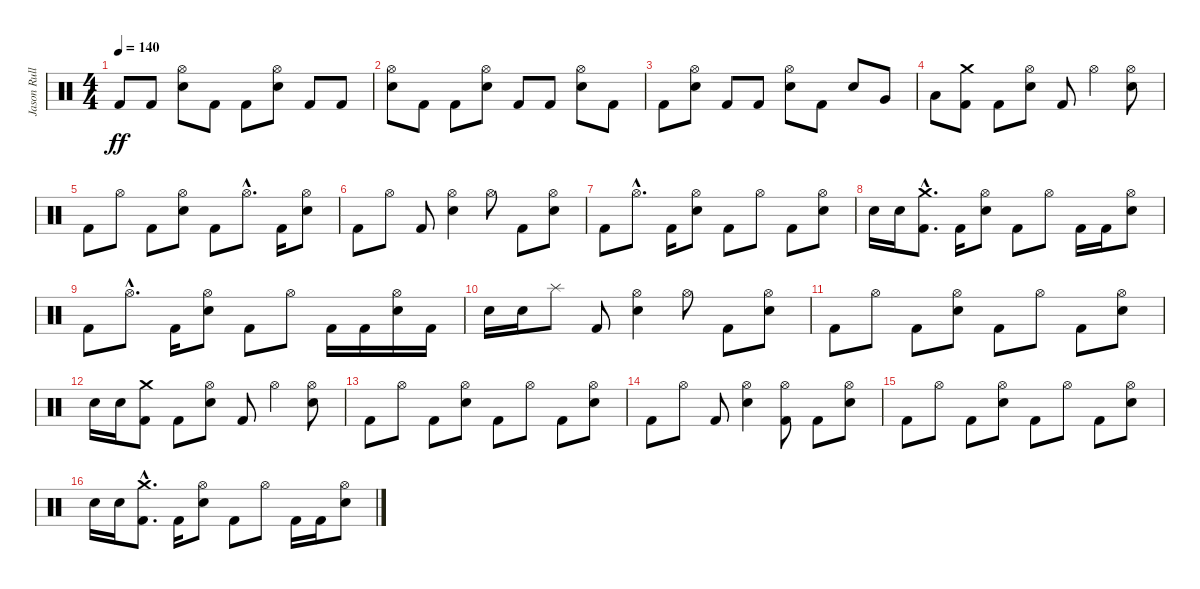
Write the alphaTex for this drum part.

\track ("Jason Rullo" "Jason Rull") {instrument percussion}
\staff {score}
\articulation defaults
\ts (4 4)
\tempo 140
\clef neutral
\ks c "Kick (hit) 2".8{dy ff volume 5} "Kick (hit) 2".8
("Electric Snare (hit)" "Hi-Hat (open)").8 "Kick (hit) 2".8{volume 5} "Kick (hit) 2".8 ("Electric Snare (hit)" "Hi-Hat (open)").8 "Kick (hit) 2".8{volume 6} "Kick (hit) 2".8 |
("Electric Snare (hit)" "Hi-Hat (open)").8 "Kick (hit) 2".8{volume 7} "Kick (hit) 2".8 ("Electric Snare (hit)" "Hi-Hat (open)").8 "Kick (hit) 2".8{volume 8} "Kick (hit) 2".8 ("Electric Snare (hit)" "Hi-Hat (open)").8 "Kick (hit) 2".8{volume 9} |
"Kick (hit) 2".8 ("Electric Snare (hit)" "Hi-Hat (open)").8 "Kick (hit) 2".8{volume 10} "Kick (hit) 2".8 ("Electric Snare (hit)" "Hi-Hat (open)").8 "Kick (hit) 2".8 "Electric Snare (hit)".8{volume 11} "Very Low Tom (hit)".8 |
"Low Floor Tom (hit)".8 ("Crash medium (hit)" "Kick (hit) 2").8 "Kick (hit) 2".8 ("Electric Snare (hit)" "Hi-Hat (open)").8 "Kick (hit) 2".8 "Hi-Hat (open)".4 ("Electric Snare (hit)" "Hi-Hat (open)").8 |
"Kick (hit) 2".8 "Hi-Hat (open)".8 "Kick (hit) 2".8 ("Electric Snare (hit)" "Hi-Hat (open)").8 "Kick (hit) 2".8 "Hi-Hat (open)"{hac}.8{d} "Kick (hit) 2".16 ("Electric Snare (hit)" "Hi-Hat (open)").8 |
"Kick (hit) 2".8 "Hi-Hat (open)".8 "Kick (hit) 2".8 ("Electric Snare (hit)" "Hi-Hat (open)").4 "Hi-Hat (open)".8 "Kick (hit) 2".8 ("Electric Snare (hit)" "Hi-Hat (open)").8 |
"Kick (hit) 2".8 "Hi-Hat (open)"{hac}.8{d} "Kick (hit) 2".16 ("Electric Snare (hit)" "Hi-Hat (open)").8 "Kick (hit) 2".8 "Hi-Hat (open)".8 "Kick (hit) 2".8 ("Electric Snare (hit)" "Hi-Hat (open)").8 |
"Electric Snare (hit)".16 "Electric Snare (hit)".16 ("Crash medium (hit)"{hac} "Kick (hit) 2"{hac}).8{d} "Kick (hit) 2".16 ("Electric Snare (hit)" "Hi-Hat (open)").8 "Kick (hit) 2".8 "Hi-Hat (open)".8 "Kick (hit) 2".16 "Kick (hit) 2".16 ("Electric Snare (hit)" "Hi-Hat (open)").8 |
"Kick (hit) 2".8 "Hi-Hat (open)"{hac}.8{d} "Kick (hit) 2".16 ("Electric Snare (hit)" "Hi-Hat (open)").8 "Kick (hit) 2".8 "Hi-Hat (open)".8 "Kick (hit) 2".16 "Kick (hit) 2".16 ("Electric Snare (hit)" "Hi-Hat (open)").16 "Kick (hit) 2".16 |
"Electric Snare (hit)".16 "Electric Snare (hit)".16 "Splash (hit)".8 "Kick (hit) 2".8 ("Electric Snare (hit)" "Hi-Hat (open)").4 "Hi-Hat (open)".8 "Kick (hit) 2".8 ("Electric Snare (hit)" "Hi-Hat (open)").8 |
"Kick (hit) 2".8 "Hi-Hat (open)".8 "Kick (hit) 2".8 ("Electric Snare (hit)" "Hi-Hat (open)").8 "Kick (hit) 2".8 "Hi-Hat (open)".8 "Kick (hit) 2".8 ("Electric Snare (hit)" "Hi-Hat (open)").8 |
"Electric Snare (hit)".16 "Electric Snare (hit)".16 ("Crash medium (hit)" "Kick (hit) 2").8 "Kick (hit) 2".8 ("Electric Snare (hit)" "Hi-Hat (open)").8 "Kick (hit) 2".8 "Hi-Hat (open)".4 ("Electric Snare (hit)" "Hi-Hat (open)").8 |
"Kick (hit) 2".8 "Hi-Hat (open)".8 "Kick (hit) 2".8 ("Electric Snare (hit)" "Hi-Hat (open)").8 "Kick (hit) 2".8 "Hi-Hat (open)".8 "Kick (hit) 2".8 ("Electric Snare (hit)" "Hi-Hat (open)").8 |
"Kick (hit) 2".8 "Hi-Hat (open)".8 "Kick (hit) 2".8 ("Electric Snare (hit)" "Hi-Hat (open)").4 ("Kick (hit) 2" "Hi-Hat (open)").8 "Kick (hit) 2".8 ("Electric Snare (hit)" "Hi-Hat (open)").8 |
"Kick (hit) 2".8 "Hi-Hat (open)".8 "Kick (hit) 2".8 ("Electric Snare (hit)" "Hi-Hat (open)").8 "Kick (hit) 2".8 "Hi-Hat (open)".8 "Kick (hit) 2".8 ("Electric Snare (hit)" "Hi-Hat (open)").8 |
"Electric Snare (hit)".16 "Electric Snare (hit)".16 ("Crash medium (hit)"{hac} "Kick (hit) 2"{hac}).8{d} "Kick (hit) 2".16 ("Electric Snare (hit)" "Hi-Hat (open)").8 "Kick (hit) 2".8 "Hi-Hat (open)".8 "Kick (hit) 2".16 "Kick (hit) 2".16 ("Electric Snare (hit)" "Hi-Hat (open)").8
